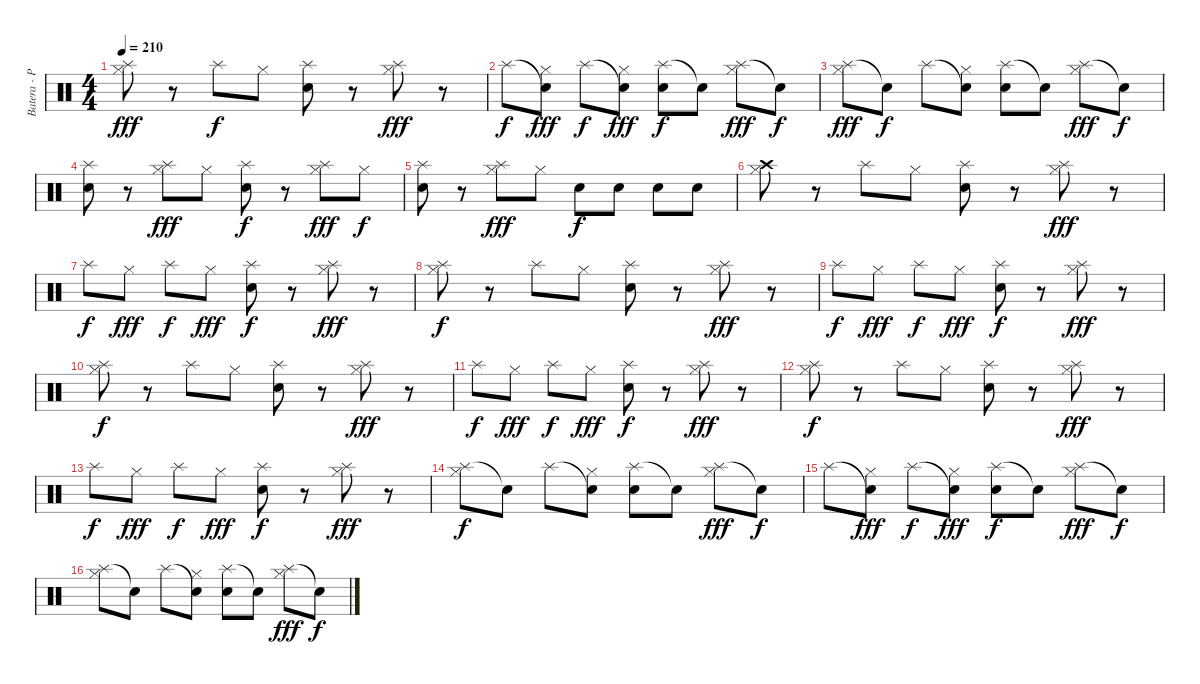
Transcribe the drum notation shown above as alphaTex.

\track ("Batera - Pelado" "Batera - P") {instrument percussion}
\staff {score}
\articulation defaults
\ts (4 4)
\tempo 210
\clef neutral
\ks c
("Splash (hit)" "Hi-Hat (closed)").8{dy fff} r.8 "Splash (hit)".8{dy f} "Hi-Hat (closed)".8 ("Splash (hit)" "Electric Snare (hit)").8 r.8 ("Splash (hit)" "Hi-Hat (closed)").8{dy fff} r.8 |
"Splash (hit)".8{dy f} ("Snare (hit)"{t} "Hi-Hat (closed)").8{dy fff} "Splash (hit)".8{dy f} ("Snare (hit)"{t} "Hi-Hat (closed)").8{dy fff} ("Splash (hit)" "Electric Snare (hit)").8{dy f} "Snare (hit)"{t}.8 ("Splash (hit)" "Hi-Hat (closed)").8{dy fff} "Snare (hit)"{t}.8{dy f} |
("Splash (hit)" "Hi-Hat (closed)").8{dy fff} "Snare (hit)"{t}.8{dy f} "Splash (hit)".8 ("Snare (hit)"{t} "Hi-Hat (closed)").8 ("Splash (hit)" "Electric Snare (hit)").8 "Snare (hit)"{t}.8 ("Splash (hit)" "Hi-Hat (closed)").8{dy fff} "Snare (hit)"{t}.8{dy f} |
("Splash (hit)" "Electric Snare (hit)").8 r.8 ("Splash (hit)" "Hi-Hat (closed)").8{dy fff} "Hi-Hat (closed)".8 ("Splash (hit)" "Electric Snare (hit)").8{dy f} r.8 ("Splash (hit)" "Hi-Hat (closed)").8{dy fff} "Hi-Hat (closed)".8{dy f} |
("Splash (hit)" "Electric Snare (hit)").8 r.8 ("Splash (hit)" "Hi-Hat (closed)").8{dy fff} "Hi-Hat (closed)".8 "Electric Snare (hit)".8{dy f} "Electric Snare (hit)".8 "Electric Snare (hit)".8 "Electric Snare (hit)".8 |
("Crash high (hit)" "Hi-Hat (closed)").8 r.8 "Splash (hit)".8 "Hi-Hat (closed)".8 ("Splash (hit)" "Electric Snare (hit)").8 r.8 ("Splash (hit)" "Hi-Hat (closed)").8{dy fff} r.8 |
"Splash (hit)".8{dy f} "Hi-Hat (closed)".8{dy fff} "Splash (hit)".8{dy f} "Hi-Hat (closed)".8{dy fff} ("Splash (hit)" "Electric Snare (hit)").8{dy f} r.8 ("Splash (hit)" "Hi-Hat (closed)").8{dy fff} r.8 |
("Splash (hit)" "Hi-Hat (closed)").8{dy f} r.8 "Splash (hit)".8 "Hi-Hat (closed)".8 ("Splash (hit)" "Electric Snare (hit)").8 r.8 ("Splash (hit)" "Hi-Hat (closed)").8{dy fff} r.8 |
"Splash (hit)".8{dy f} "Hi-Hat (closed)".8{dy fff} "Splash (hit)".8{dy f} "Hi-Hat (closed)".8{dy fff} ("Splash (hit)" "Electric Snare (hit)").8{dy f} r.8 ("Splash (hit)" "Hi-Hat (closed)").8{dy fff} r.8 |
("Splash (hit)" "Hi-Hat (closed)").8{dy f} r.8 "Splash (hit)".8 "Hi-Hat (closed)".8 ("Splash (hit)" "Electric Snare (hit)").8 r.8 ("Splash (hit)" "Hi-Hat (closed)").8{dy fff} r.8 |
"Splash (hit)".8{dy f} "Hi-Hat (closed)".8{dy fff} "Splash (hit)".8{dy f} "Hi-Hat (closed)".8{dy fff} ("Splash (hit)" "Electric Snare (hit)").8{dy f} r.8 ("Splash (hit)" "Hi-Hat (closed)").8{dy fff} r.8 |
("Splash (hit)" "Hi-Hat (closed)").8{dy f} r.8 "Splash (hit)".8 "Hi-Hat (closed)".8 ("Splash (hit)" "Electric Snare (hit)").8 r.8 ("Splash (hit)" "Hi-Hat (closed)").8{dy fff} r.8 |
"Splash (hit)".8{dy f} "Hi-Hat (closed)".8{dy fff} "Splash (hit)".8{dy f} "Hi-Hat (closed)".8{dy fff} ("Splash (hit)" "Electric Snare (hit)").8{dy f} r.8 ("Splash (hit)" "Hi-Hat (closed)").8{dy fff} r.8 |
("Splash (hit)" "Hi-Hat (closed)").8{dy f} "Snare (hit)"{t}.8 "Splash (hit)".8 ("Snare (hit)"{t} "Hi-Hat (closed)").8 ("Splash (hit)" "Electric Snare (hit)").8 "Snare (hit)"{t}.8 ("Splash (hit)" "Hi-Hat (closed)").8{dy fff} "Snare (hit)"{t}.8{dy f} |
"Splash (hit)".8 ("Snare (hit)"{t} "Hi-Hat (closed)").8{dy fff} "Splash (hit)".8{dy f} ("Snare (hit)"{t} "Hi-Hat (closed)").8{dy fff} ("Splash (hit)" "Electric Snare (hit)").8{dy f} "Snare (hit)"{t}.8 ("Splash (hit)" "Hi-Hat (closed)").8{dy fff} "Snare (hit)"{t}.8{dy f} |
("Splash (hit)" "Hi-Hat (closed)").8 "Snare (hit)"{t}.8 "Splash (hit)".8 ("Snare (hit)"{t} "Hi-Hat (closed)").8 ("Splash (hit)" "Electric Snare (hit)").8 "Snare (hit)"{t}.8 ("Splash (hit)" "Hi-Hat (closed)").8{dy fff} "Snare (hit)"{t}.8{dy f}
